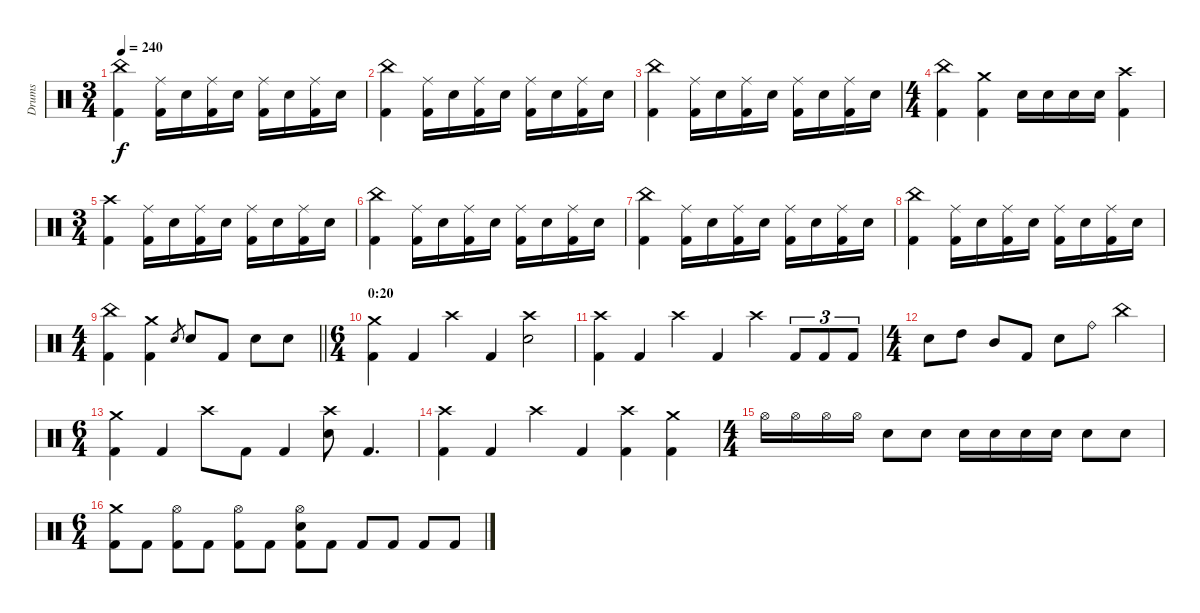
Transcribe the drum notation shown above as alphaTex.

\track ("Drums" "Drums") {instrument percussion}
\staff {score}
\articulation defaults
\ts (3 4)
\tempo 240
\clef neutral
\ks c
("China (hit)" "Kick (hit) 2").4{dy f} ("Ride (middle)" "Kick (hit) 2").16 "Electric Snare (hit)".16 ("Ride (middle)" "Kick (hit) 2").16 "Electric Snare (hit)".16 ("Ride (middle)" "Kick (hit) 2").16 "Electric Snare (hit)".16 ("Ride (middle)" "Kick (hit) 2").16 "Electric Snare (hit)".16 |
("China (hit)" "Kick (hit) 2").4 ("Ride (middle)" "Kick (hit) 2").16 "Electric Snare (hit)".16 ("Ride (middle)" "Kick (hit) 2").16 "Electric Snare (hit)".16 ("Ride (middle)" "Kick (hit) 2").16 "Electric Snare (hit)".16 ("Ride (middle)" "Kick (hit) 2").16 "Electric Snare (hit)".16 |
("China (hit)" "Kick (hit) 2").4 ("Ride (middle)" "Kick (hit) 2").16 "Electric Snare (hit)".16 ("Ride (middle)" "Kick (hit) 2").16 "Electric Snare (hit)".16 ("Ride (middle)" "Kick (hit) 2").16 "Electric Snare (hit)".16 ("Ride (middle)" "Kick (hit) 2").16 "Electric Snare (hit)".16 |
\ts (4 4)
("China (hit)" "Kick (hit) 2").4 ("Crash medium (hit)" "Kick (hit) 2").4 "Electric Snare (hit)".16 "Electric Snare (hit)".16 "Electric Snare (hit)".16 "Electric Snare (hit)".16 ("Crash high (hit)" "Kick (hit) 2").4 |
\ts (3 4)
("Crash high (hit)" "Kick (hit) 2").4 ("Ride (middle)" "Kick (hit) 2").16 "Electric Snare (hit)".16 ("Ride (middle)" "Kick (hit) 2").16 "Electric Snare (hit)".16 ("Ride (middle)" "Kick (hit) 2").16 "Electric Snare (hit)".16 ("Ride (middle)" "Kick (hit) 2").16 "Electric Snare (hit)".16 |
("China (hit)" "Kick (hit) 2").4 ("Ride (middle)" "Kick (hit) 2").16 "Electric Snare (hit)".16 ("Ride (middle)" "Kick (hit) 2").16 "Electric Snare (hit)".16 ("Ride (middle)" "Kick (hit) 2").16 "Electric Snare (hit)".16 ("Ride (middle)" "Kick (hit) 2").16 "Electric Snare (hit)".16 |
("China (hit)" "Kick (hit) 2").4 ("Ride (middle)" "Kick (hit) 2").16 "Electric Snare (hit)".16 ("Ride (middle)" "Kick (hit) 2").16 "Electric Snare (hit)".16 ("Ride (middle)" "Kick (hit) 2").16 "Electric Snare (hit)".16 ("Ride (middle)" "Kick (hit) 2").16 "Electric Snare (hit)".16 |
("China (hit)" "Kick (hit) 2").4 ("Ride (middle)" "Kick (hit) 2").16 "Electric Snare (hit)".16 ("Ride (middle)" "Kick (hit) 2").16 "Electric Snare (hit)".16 ("Ride (middle)" "Kick (hit) 2").16 "Electric Snare (hit)".16 ("Ride (middle)" "Kick (hit) 2").16 "Electric Snare (hit)".16 |
\ts (4 4)
\barLineRight lightlight
("China (hit)" "Kick (hit) 2").4 ("Crash medium (hit)" "Kick (hit) 2").4 "Electric Snare (hit)".8{gr} "Electric Snare (hit)".8 "Kick (hit) 2".8 "Electric Snare (hit)".8 "Electric Snare (hit)".8 |
\ts (6 4)
\section ("" "0:20")
("Crash medium (hit)" "Kick (hit) 2").4 "Kick (hit) 2".4 "Crash high (hit)".4 "Kick (hit) 2".4 ("Crash high (hit)" "Electric Snare (hit)").2 |
("Crash high (hit)" "Kick (hit) 2").4 "Kick (hit) 2".4 "Crash high (hit)".4 "Kick (hit) 2".4 "Crash high (hit)".4 "Kick (hit) 2".8{tu (3 2)} "Kick (hit) 2".8{tu (3 2)} "Kick (hit) 2".8{tu (3 2)} |
\ts (4 4)
"Electric Snare (hit)".8 "High Tom (hit)".8 "Mid Tom (hit)".8 "Kick (hit) 2".8 "Electric Snare (hit)".8 "Ride (bell)".8 "China (hit)".4 |
\ts (6 4)
("Crash medium (hit)" "Kick (hit) 2").4 "Kick (hit) 2".4 "Crash high (hit)".8 "Kick (hit) 2".8 "Kick (hit) 2".4 ("Crash high (hit)" "Electric Snare (hit)").8 "Kick (hit) 2".4{d} |
("Crash high (hit)" "Kick (hit) 2").4 "Kick (hit) 2".4 "Crash high (hit)".4 "Kick (hit) 2".4 ("Kick (hit) 2" "Crash high (hit)").4 ("Kick (hit) 2" "Crash medium (hit)").4 |
\ts (4 4)
"Hi-Hat (open)".16 "Hi-Hat (open)".16 "Hi-Hat (open)".16 "Hi-Hat (open)".16 "Electric Snare (hit)".8 "Electric Snare (hit)".8 "Electric Snare (hit)".16 "Electric Snare (hit)".16 "Electric Snare (hit)".16 "Electric Snare (hit)".16 "Electric Snare (hit)".8 "Electric Snare (hit)".8 |
\ts (6 4)
("Kick (hit) 2" "Crash medium (hit)").8 "Kick (hit) 2".8 ("Kick (hit) 2" "Hi-Hat (open)").8 "Kick (hit) 2".8 ("Kick (hit) 2" "Hi-Hat (open)").8 "Kick (hit) 2".8 ("Kick (hit) 2" "Hi-Hat (open)" "Electric Snare (hit)").8 "Kick (hit) 2".8 "Kick (hit) 2".8 "Kick (hit) 2".8 "Kick (hit) 2".8 "Kick (hit) 2".8
